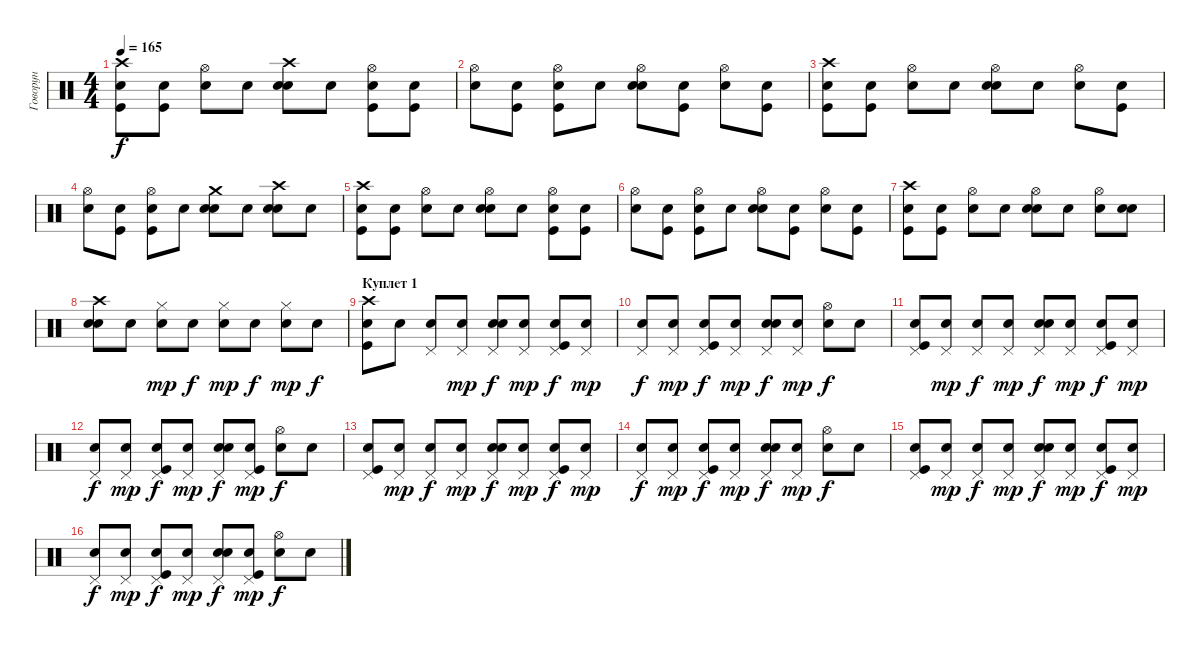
\track ("Говорун" "Говорун") {instrument percussion}
\staff {score}
\articulation defaults
\ts (4 4)
\tempo 165
\clef neutral
\ks c
("Crash high (hit)" "Kick (hit)" "Snare (hit)"{x}).8{dy f} ("Kick (hit)" "Snare (hit)"{x}).8 ("Hi-Hat (open)" "Snare (hit)"{x}).8 "Snare (hit)"{x}.8 ("Crash high (hit)" "Snare (hit) 2" "Snare (hit)"{x}).8 "Snare (hit)"{x}.8 ("Hi-Hat (open)" "Kick (hit)" "Snare (hit)"{x}).8 ("Kick (hit)" "Snare (hit)"{x}).8 |
("Hi-Hat (open)" "Snare (hit)"{x}).8 ("Kick (hit)" "Snare (hit)"{x}).8 ("Hi-Hat (open)" "Kick (hit)" "Snare (hit)"{x}).8 "Snare (hit)"{x}.8 ("Hi-Hat (open)" "Snare (hit) 2" "Snare (hit)"{x}).8 ("Kick (hit)" "Snare (hit)"{x}).8 ("Hi-Hat (open)" "Snare (hit)"{x}).8 ("Kick (hit)" "Snare (hit)"{x}).8 |
("Crash high (hit)" "Kick (hit)" "Snare (hit)"{x}).8 ("Kick (hit)" "Snare (hit)"{x}).8 ("Hi-Hat (open)" "Snare (hit)"{x}).8 "Snare (hit)"{x}.8 ("Hi-Hat (open)" "Snare (hit) 2" "Snare (hit)"{x}).8 "Snare (hit)"{x}.8 ("Hi-Hat (open)" "Snare (hit)"{x}).8 ("Kick (hit)" "Snare (hit)"{x}).8 |
("Hi-Hat (open)" "Snare (hit)"{x}).8 ("Kick (hit)" "Snare (hit)"{x}).8 ("Hi-Hat (open)" "Kick (hit)" "Snare (hit)"{x}).8 "Snare (hit)"{x}.8 ("Crash medium (hit)" "Snare (hit) 2" "Snare (hit)"{x}).8 "Snare (hit)"{x}.8 ("Crash high (hit)" "Snare (hit) 2" "Snare (hit)"{x}).8 "Snare (hit)"{x}.8 |
("Crash high (hit)" "Kick (hit)" "Snare (hit)"{x}).8 ("Kick (hit)" "Snare (hit)"{x}).8 ("Hi-Hat (open)" "Snare (hit)"{x}).8 "Snare (hit)"{x}.8 ("Hi-Hat (open)" "Snare (hit) 2" "Snare (hit)"{x}).8 "Snare (hit)"{x}.8 ("Hi-Hat (open)" "Kick (hit)" "Snare (hit)"{x}).8 ("Kick (hit)" "Snare (hit)"{x}).8 |
("Hi-Hat (open)" "Snare (hit)"{x}).8 ("Kick (hit)" "Snare (hit)"{x}).8 ("Hi-Hat (open)" "Kick (hit)" "Snare (hit)"{x}).8 "Snare (hit)"{x}.8 ("Hi-Hat (open)" "Snare (hit) 2" "Snare (hit)"{x}).8 ("Kick (hit)" "Snare (hit)"{x}).8 ("Hi-Hat (open)" "Snare (hit)"{x}).8 ("Kick (hit)" "Snare (hit)"{x}).8 |
("Crash high (hit)" "Kick (hit)" "Snare (hit)"{x}).8 ("Kick (hit)" "Snare (hit)"{x}).8 ("Hi-Hat (open)" "Snare (hit)"{x}).8 "Snare (hit)"{x}.8 ("Hi-Hat (open)" "Snare (hit) 2" "Snare (hit)"{x}).8 "Snare (hit)"{x}.8 ("Hi-Hat (open)" "Snare (hit)"{x}).8 ("Snare (hit) 2" "Snare (hit)"{x}).8 |
("Crash high (hit)" "Snare (hit) 2" "Snare (hit)"{x}).8 "Snare (hit)"{x}.8 ("Hi-Hat (closed)" "Snare (hit)"{x}).8{dy mp} "Snare (hit)"{x}.8{dy f} ("Hi-Hat (closed)" "Snare (hit)"{x}).8{dy mp} "Snare (hit)"{x}.8{dy f} ("Hi-Hat (closed)" "Snare (hit)"{x}).8{dy mp} "Snare (hit)"{x}.8{dy f} |
\section ("" "Куплет 1")
("Crash high (hit)" "Kick (hit)" "Snare (hit)"{x}).8 "Snare (hit)"{x}.8 ("Pedal Hi-Hat (hit)" "Snare (hit)"{x}).8 ("Pedal Hi-Hat (hit)" "Snare (hit)"{x}).8{dy mp} ("Pedal Hi-Hat (hit)" "Snare (hit) 2" "Snare (hit)"{x}).8{dy f} ("Pedal Hi-Hat (hit)" "Snare (hit)"{x}).8{dy mp} ("Pedal Hi-Hat (hit)" "Kick (hit)" "Snare (hit)"{x}).8{dy f} ("Pedal Hi-Hat (hit)" "Snare (hit)"{x}).8{dy mp} |
("Pedal Hi-Hat (hit)" "Snare (hit)"{x}).8{dy f} ("Pedal Hi-Hat (hit)" "Snare (hit)"{x}).8{dy mp} ("Pedal Hi-Hat (hit)" "Kick (hit)" "Snare (hit)"{x}).8{dy f} ("Pedal Hi-Hat (hit)" "Snare (hit)"{x}).8{dy mp} ("Pedal Hi-Hat (hit)" "Snare (hit) 2" "Snare (hit)"{x}).8{dy f} ("Pedal Hi-Hat (hit)" "Snare (hit)"{x}).8{dy mp} ("Hi-Hat (open)" "Snare (hit)"{x}).8{dy f} "Snare (hit)"{x}.8 |
("Pedal Hi-Hat (hit)" "Kick (hit)" "Snare (hit)"{x}).8 ("Pedal Hi-Hat (hit)" "Snare (hit)"{x}).8{dy mp} ("Pedal Hi-Hat (hit)" "Snare (hit)"{x}).8{dy f} ("Pedal Hi-Hat (hit)" "Snare (hit)"{x}).8{dy mp} ("Pedal Hi-Hat (hit)" "Snare (hit) 2" "Snare (hit)"{x}).8{dy f} ("Pedal Hi-Hat (hit)" "Snare (hit)"{x}).8{dy mp} ("Pedal Hi-Hat (hit)" "Kick (hit)" "Snare (hit)"{x}).8{dy f} ("Pedal Hi-Hat (hit)" "Snare (hit)"{x}).8{dy mp} |
("Pedal Hi-Hat (hit)" "Snare (hit)"{x}).8{dy f} ("Pedal Hi-Hat (hit)" "Snare (hit)"{x}).8{dy mp} ("Pedal Hi-Hat (hit)" "Kick (hit)" "Snare (hit)"{x}).8{dy f} ("Pedal Hi-Hat (hit)" "Snare (hit)"{x}).8{dy mp} ("Pedal Hi-Hat (hit)" "Snare (hit) 2" "Snare (hit)"{x}).8{dy f} ("Pedal Hi-Hat (hit)" "Kick (hit)" "Snare (hit)"{x}).8{dy mp} ("Hi-Hat (open)" "Snare (hit)"{x}).8{dy f} "Snare (hit)"{x}.8 |
("Pedal Hi-Hat (hit)" "Kick (hit)" "Snare (hit)"{x}).8 ("Pedal Hi-Hat (hit)" "Snare (hit)"{x}).8{dy mp} ("Pedal Hi-Hat (hit)" "Snare (hit)"{x}).8{dy f} ("Pedal Hi-Hat (hit)" "Snare (hit)"{x}).8{dy mp} ("Pedal Hi-Hat (hit)" "Snare (hit) 2" "Snare (hit)"{x}).8{dy f} ("Pedal Hi-Hat (hit)" "Snare (hit)"{x}).8{dy mp} ("Pedal Hi-Hat (hit)" "Kick (hit)" "Snare (hit)"{x}).8{dy f} ("Pedal Hi-Hat (hit)" "Snare (hit)"{x}).8{dy mp} |
("Pedal Hi-Hat (hit)" "Snare (hit)"{x}).8{dy f} ("Pedal Hi-Hat (hit)" "Snare (hit)"{x}).8{dy mp} ("Pedal Hi-Hat (hit)" "Kick (hit)" "Snare (hit)"{x}).8{dy f} ("Pedal Hi-Hat (hit)" "Snare (hit)"{x}).8{dy mp} ("Pedal Hi-Hat (hit)" "Snare (hit) 2" "Snare (hit)"{x}).8{dy f} ("Pedal Hi-Hat (hit)" "Snare (hit)"{x}).8{dy mp} ("Hi-Hat (open)" "Snare (hit)"{x}).8{dy f} "Snare (hit)"{x}.8 |
("Pedal Hi-Hat (hit)" "Kick (hit)" "Snare (hit)"{x}).8 ("Pedal Hi-Hat (hit)" "Snare (hit)"{x}).8{dy mp} ("Pedal Hi-Hat (hit)" "Snare (hit)"{x}).8{dy f} ("Pedal Hi-Hat (hit)" "Snare (hit)"{x}).8{dy mp} ("Pedal Hi-Hat (hit)" "Snare (hit) 2" "Snare (hit)"{x}).8{dy f} ("Pedal Hi-Hat (hit)" "Snare (hit)"{x}).8{dy mp} ("Pedal Hi-Hat (hit)" "Kick (hit)" "Snare (hit)"{x}).8{dy f} ("Pedal Hi-Hat (hit)" "Snare (hit)"{x}).8{dy mp} |
("Pedal Hi-Hat (hit)" "Snare (hit)"{x}).8{dy f} ("Pedal Hi-Hat (hit)" "Snare (hit)"{x}).8{dy mp} ("Pedal Hi-Hat (hit)" "Kick (hit)" "Snare (hit)"{x}).8{dy f} ("Pedal Hi-Hat (hit)" "Snare (hit)"{x}).8{dy mp} ("Pedal Hi-Hat (hit)" "Snare (hit) 2" "Snare (hit)"{x}).8{dy f} ("Pedal Hi-Hat (hit)" "Kick (hit)" "Snare (hit)"{x}).8{dy mp} ("Hi-Hat (open)" "Snare (hit)"{x}).8{dy f} "Snare (hit)"{x}.8
